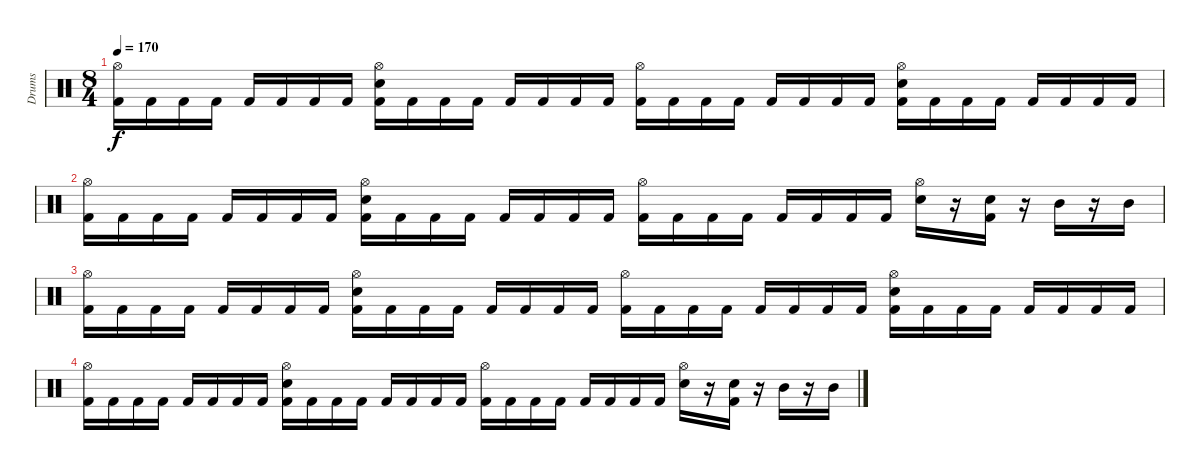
\track ("Drums" "Drums") {instrument percussion}
\staff {score}
\articulation defaults
\ts (8 4)
\tempo 170
\clef neutral
\ks c
("Hi-Hat (open)" "Kick (hit) 2").16{dy f} "Kick (hit) 2".16 "Kick (hit) 2".16 "Kick (hit) 2".16 "Kick (hit) 2".16 "Kick (hit) 2".16 "Kick (hit) 2".16 "Kick (hit) 2".16 ("Hi-Hat (open)" "Snare (hit) 2" "Kick (hit) 2").16 "Kick (hit) 2".16 "Kick (hit) 2".16 "Kick (hit) 2".16 "Kick (hit) 2".16 "Kick (hit) 2".16 "Kick (hit) 2".16 "Kick (hit) 2".16 ("Hi-Hat (open)" "Kick (hit) 2").16 "Kick (hit) 2".16 "Kick (hit) 2".16 "Kick (hit) 2".16 "Kick (hit) 2".16 "Kick (hit) 2".16 "Kick (hit) 2".16 "Kick (hit) 2".16 ("Hi-Hat (open)" "Snare (hit) 2" "Kick (hit) 2").16 "Kick (hit) 2".16 "Kick (hit) 2".16 "Kick (hit) 2".16 "Kick (hit) 2".16 "Kick (hit) 2".16 "Kick (hit) 2".16 "Kick (hit) 2".16 |
("Hi-Hat (open)" "Kick (hit) 2").16 "Kick (hit) 2".16 "Kick (hit) 2".16 "Kick (hit) 2".16 "Kick (hit) 2".16 "Kick (hit) 2".16 "Kick (hit) 2".16 "Kick (hit) 2".16 ("Hi-Hat (open)" "Snare (hit) 2" "Kick (hit) 2").16 "Kick (hit) 2".16 "Kick (hit) 2".16 "Kick (hit) 2".16 "Kick (hit) 2".16 "Kick (hit) 2".16 "Kick (hit) 2".16 "Kick (hit) 2".16 ("Hi-Hat (open)" "Kick (hit) 2").16 "Kick (hit) 2".16 "Kick (hit) 2".16 "Kick (hit) 2".16 "Kick (hit) 2".16 "Kick (hit) 2".16 "Kick (hit) 2".16 "Kick (hit) 2".16 ("Hi-Hat (open)" "Snare (hit) 2").16 r.16 ("Snare (hit) 2" "Kick (hit) 2").16 r.16 "Mid Tom (hit)".16 r.16 "Mid Tom (hit)".16 |
("Hi-Hat (open)" "Kick (hit) 2").16 "Kick (hit) 2".16 "Kick (hit) 2".16 "Kick (hit) 2".16 "Kick (hit) 2".16 "Kick (hit) 2".16 "Kick (hit) 2".16 "Kick (hit) 2".16 ("Hi-Hat (open)" "Snare (hit) 2" "Kick (hit) 2").16 "Kick (hit) 2".16 "Kick (hit) 2".16 "Kick (hit) 2".16 "Kick (hit) 2".16 "Kick (hit) 2".16 "Kick (hit) 2".16 "Kick (hit) 2".16 ("Hi-Hat (open)" "Kick (hit) 2").16 "Kick (hit) 2".16 "Kick (hit) 2".16 "Kick (hit) 2".16 "Kick (hit) 2".16 "Kick (hit) 2".16 "Kick (hit) 2".16 "Kick (hit) 2".16 ("Hi-Hat (open)" "Snare (hit) 2" "Kick (hit) 2").16 "Kick (hit) 2".16 "Kick (hit) 2".16 "Kick (hit) 2".16 "Kick (hit) 2".16 "Kick (hit) 2".16 "Kick (hit) 2".16 "Kick (hit) 2".16 |
("Hi-Hat (open)" "Kick (hit) 2").16 "Kick (hit) 2".16 "Kick (hit) 2".16 "Kick (hit) 2".16 "Kick (hit) 2".16 "Kick (hit) 2".16 "Kick (hit) 2".16 "Kick (hit) 2".16 ("Hi-Hat (open)" "Snare (hit) 2" "Kick (hit) 2").16 "Kick (hit) 2".16 "Kick (hit) 2".16 "Kick (hit) 2".16 "Kick (hit) 2".16 "Kick (hit) 2".16 "Kick (hit) 2".16 "Kick (hit) 2".16 ("Hi-Hat (open)" "Kick (hit) 2").16 "Kick (hit) 2".16 "Kick (hit) 2".16 "Kick (hit) 2".16 "Kick (hit) 2".16 "Kick (hit) 2".16 "Kick (hit) 2".16 "Kick (hit) 2".16 ("Hi-Hat (open)" "Snare (hit) 2").16 r.16 ("Snare (hit) 2" "Kick (hit) 2").16 r.16 "Mid Tom (hit)".16 r.16 "Mid Tom (hit)".16
